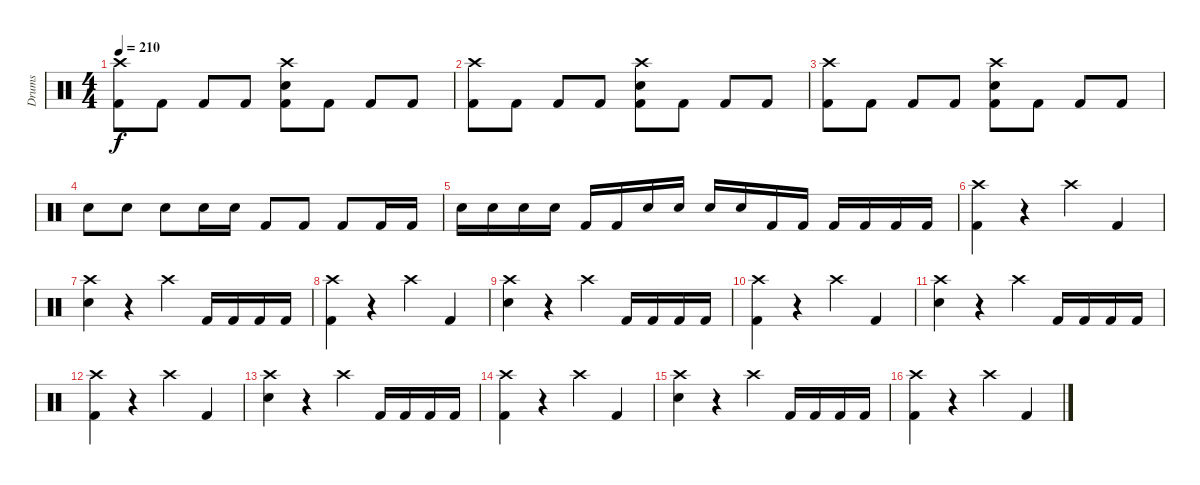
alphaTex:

\track ("Drums" "Drums") {instrument percussion}
\staff {score}
\articulation defaults
\ts (4 4)
\tempo 210
\clef neutral
\ks c
("Crash high (hit)" "Kick (hit) 2").8{dy f} "Kick (hit) 2".8 "Kick (hit) 2".8 "Kick (hit) 2".8 ("Crash high (hit)" "Electric Snare (hit)" "Kick (hit) 2").8 "Kick (hit) 2".8 "Kick (hit) 2".8 "Kick (hit) 2".8 |
("Crash high (hit)" "Kick (hit) 2").8 "Kick (hit) 2".8 "Kick (hit) 2".8 "Kick (hit) 2".8 ("Crash high (hit)" "Electric Snare (hit)" "Kick (hit) 2").8 "Kick (hit) 2".8 "Kick (hit) 2".8 "Kick (hit) 2".8 |
("Crash high (hit)" "Kick (hit) 2").8 "Kick (hit) 2".8 "Kick (hit) 2".8 "Kick (hit) 2".8 ("Crash high (hit)" "Electric Snare (hit)" "Kick (hit) 2").8 "Kick (hit) 2".8 "Kick (hit) 2".8 "Kick (hit) 2".8 |
"Electric Snare (hit)".8 "Electric Snare (hit)".8 "Electric Snare (hit)".8 "Electric Snare (hit)".16 "Electric Snare (hit)".16 "Kick (hit) 2".8 "Kick (hit) 2".8 "Kick (hit) 2".8 "Kick (hit) 2".16 "Kick (hit) 2".16 |
"Electric Snare (hit)".16 "Electric Snare (hit)".16 "Electric Snare (hit)".16 "Electric Snare (hit)".16 "Kick (hit) 2".16 "Kick (hit) 2".16 "Electric Snare (hit)".16 "Electric Snare (hit)".16 "Electric Snare (hit)".16 "Electric Snare (hit)".16 "Kick (hit) 2".16 "Kick (hit) 2".16 "Kick (hit) 2".16 "Kick (hit) 2".16 "Kick (hit) 2".16 "Kick (hit) 2".16 |
("Crash high (hit)" "Kick (hit) 2").4 r.4 "Crash high (hit)".4 "Kick (hit) 2".4 |
("Crash high (hit)" "Electric Snare (hit)").4 r.4 "Crash high (hit)".4 "Kick (hit) 2".16 "Kick (hit) 2".16 "Kick (hit) 2".16 "Kick (hit) 2".16 |
("Crash high (hit)" "Kick (hit) 2").4 r.4 "Crash high (hit)".4 "Kick (hit) 2".4 |
("Crash high (hit)" "Electric Snare (hit)").4 r.4 "Crash high (hit)".4 "Kick (hit) 2".16 "Kick (hit) 2".16 "Kick (hit) 2".16 "Kick (hit) 2".16 |
("Crash high (hit)" "Kick (hit) 2").4 r.4 "Crash high (hit)".4 "Kick (hit) 2".4 |
("Crash high (hit)" "Electric Snare (hit)").4 r.4 "Crash high (hit)".4 "Kick (hit) 2".16 "Kick (hit) 2".16 "Kick (hit) 2".16 "Kick (hit) 2".16 |
("Crash high (hit)" "Kick (hit) 2").4 r.4 "Crash high (hit)".4 "Kick (hit) 2".4 |
("Crash high (hit)" "Electric Snare (hit)").4 r.4 "Crash high (hit)".4 "Kick (hit) 2".16 "Kick (hit) 2".16 "Kick (hit) 2".16 "Kick (hit) 2".16 |
("Crash high (hit)" "Kick (hit) 2").4 r.4 "Crash high (hit)".4 "Kick (hit) 2".4 |
("Crash high (hit)" "Electric Snare (hit)").4 r.4 "Crash high (hit)".4 "Kick (hit) 2".16 "Kick (hit) 2".16 "Kick (hit) 2".16 "Kick (hit) 2".16 |
("Crash high (hit)" "Kick (hit) 2").4 r.4 "Crash high (hit)".4 "Kick (hit) 2".4
